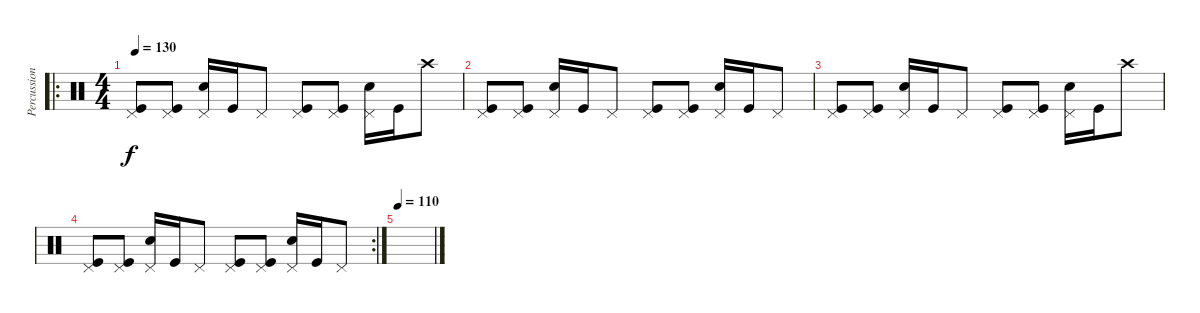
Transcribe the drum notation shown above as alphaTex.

\track ("Percussion" "Percussion") {instrument percussion}
\staff {score}
\articulation defaults
\ro
\ts (4 4)
\tempo 130
\clef neutral
\ks c
("Pedal Hi-Hat (hit)" "Kick (hit)").8{dy f} ("Pedal Hi-Hat (hit)" "Kick (hit)").8 ("Pedal Hi-Hat (hit)" "Snare (hit) 2").16 "Kick (hit)".16 "Pedal Hi-Hat (hit)".8 ("Pedal Hi-Hat (hit)" "Kick (hit)").8 ("Pedal Hi-Hat (hit)" "Kick (hit)").8 ("Pedal Hi-Hat (hit)" "Snare (hit) 2").16 "Kick (hit)".16 "Crash high (hit)".8 |
("Pedal Hi-Hat (hit)" "Kick (hit)").8 ("Pedal Hi-Hat (hit)" "Kick (hit)").8 ("Pedal Hi-Hat (hit)" "Snare (hit) 2").16 "Kick (hit)".16 "Pedal Hi-Hat (hit)".8 ("Pedal Hi-Hat (hit)" "Kick (hit)").8 ("Pedal Hi-Hat (hit)" "Kick (hit)").8 ("Pedal Hi-Hat (hit)" "Snare (hit) 2").16 "Kick (hit)".16 "Pedal Hi-Hat (hit)".8 |
("Pedal Hi-Hat (hit)" "Kick (hit)").8 ("Pedal Hi-Hat (hit)" "Kick (hit)").8 ("Pedal Hi-Hat (hit)" "Snare (hit) 2").16 "Kick (hit)".16 "Pedal Hi-Hat (hit)".8 ("Pedal Hi-Hat (hit)" "Kick (hit)").8 ("Pedal Hi-Hat (hit)" "Kick (hit)").8 ("Pedal Hi-Hat (hit)" "Snare (hit) 2").16 "Kick (hit)".16 "Crash high (hit)".8 |
\rc 2
("Pedal Hi-Hat (hit)" "Kick (hit)").8 ("Pedal Hi-Hat (hit)" "Kick (hit)").8 ("Pedal Hi-Hat (hit)" "Snare (hit) 2").16 "Kick (hit)".16 "Pedal Hi-Hat (hit)".8 ("Pedal Hi-Hat (hit)" "Kick (hit)").8 ("Pedal Hi-Hat (hit)" "Kick (hit)").8 ("Pedal Hi-Hat (hit)" "Snare (hit) 2").16 "Kick (hit)".16 "Pedal Hi-Hat (hit)".8 |
\tempo 110
